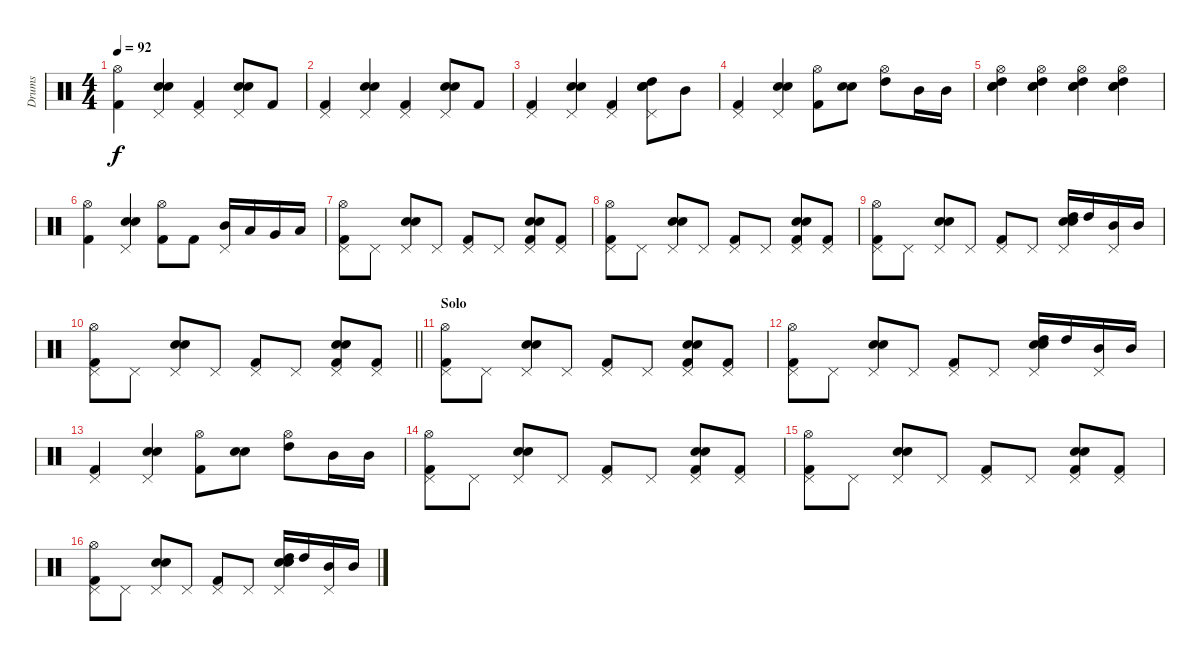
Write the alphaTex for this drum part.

\track ("Drums" "Drums") {instrument percussion}
\staff {score}
\articulation defaults
\ts (4 4)
\tempo 92
\clef neutral
\ks c
("Hi-Hat (open)" "Kick (hit) 2").4{dy f} ("Snare (hit) 2" "Electric Snare (hit)" "Pedal Hi-Hat (hit)").4 ("Kick (hit) 2" "Pedal Hi-Hat (hit)").4 ("Snare (hit) 2" "Electric Snare (hit)" "Pedal Hi-Hat (hit)").8 "Kick (hit) 2".8 |
("Kick (hit) 2" "Pedal Hi-Hat (hit)").4 ("Snare (hit) 2" "Electric Snare (hit)" "Pedal Hi-Hat (hit)").4 ("Kick (hit) 2" "Pedal Hi-Hat (hit)").4 ("Snare (hit) 2" "Electric Snare (hit)" "Pedal Hi-Hat (hit)").8 "Kick (hit) 2".8 |
("Kick (hit) 2" "Pedal Hi-Hat (hit)").4 ("Snare (hit) 2" "Electric Snare (hit)" "Pedal Hi-Hat (hit)").4 ("Kick (hit) 2" "Pedal Hi-Hat (hit)").4 ("Snare (hit) 2" "Electric Snare (hit)" "High Tom (hit)" "Pedal Hi-Hat (hit)").8 "Mid Tom (hit)".8 |
("Kick (hit) 2" "Pedal Hi-Hat (hit)").4 ("Snare (hit) 2" "Electric Snare (hit)" "Pedal Hi-Hat (hit)").4 ("Hi-Hat (open)" "Kick (hit) 2").8 ("Snare (hit) 2" "Electric Snare (hit)").8 ("Hi-Hat (open)" "High Tom (hit)").8 "Mid Tom (hit)".16 "Mid Tom (hit)".16 |
("Hi-Hat (open)" "Snare (hit) 2" "Electric Snare (hit)" "High Tom (hit)").4 ("Hi-Hat (open)" "Snare (hit) 2" "Electric Snare (hit)" "High Tom (hit)").4 ("Hi-Hat (open)" "Snare (hit) 2" "Electric Snare (hit)" "High Tom (hit)").4 ("Hi-Hat (open)" "Snare (hit) 2" "Electric Snare (hit)" "High Tom (hit)").4 |
("Hi-Hat (open)" "Kick (hit) 2").4 ("Snare (hit) 2" "Electric Snare (hit)" "Pedal Hi-Hat (hit)").4 ("Hi-Hat (open)" "Kick (hit) 2").8 "Kick (hit) 2".8 ("Mid Tom (hit)" "Pedal Hi-Hat (hit)").16 "Low Tom (hit)".16 "Very Low Tom (hit)".16 "Low Floor Tom (hit)".16 |
("Hi-Hat (open)" "Kick (hit) 2" "Pedal Hi-Hat (hit)").8 "Pedal Hi-Hat (hit)".8 ("Snare (hit) 2" "Electric Snare (hit)" "Pedal Hi-Hat (hit)").8 "Pedal Hi-Hat (hit)".8 ("Kick (hit) 2" "Pedal Hi-Hat (hit)").8 "Pedal Hi-Hat (hit)".8 ("Snare (hit) 2" "Electric Snare (hit)" "Kick (hit) 2" "Pedal Hi-Hat (hit)").8 ("Kick (hit) 2" "Pedal Hi-Hat (hit)").8 |
("Hi-Hat (open)" "Kick (hit) 2" "Pedal Hi-Hat (hit)").8 "Pedal Hi-Hat (hit)".8 ("Snare (hit) 2" "Electric Snare (hit)" "Pedal Hi-Hat (hit)").8 "Pedal Hi-Hat (hit)".8 ("Kick (hit) 2" "Pedal Hi-Hat (hit)").8 "Pedal Hi-Hat (hit)".8 ("Snare (hit) 2" "Electric Snare (hit)" "Kick (hit) 2" "Pedal Hi-Hat (hit)").8 ("Kick (hit) 2" "Pedal Hi-Hat (hit)").8 |
("Hi-Hat (open)" "Kick (hit) 2" "Pedal Hi-Hat (hit)").8 "Pedal Hi-Hat (hit)".8 ("Snare (hit) 2" "Electric Snare (hit)" "Pedal Hi-Hat (hit)").8 "Pedal Hi-Hat (hit)".8 ("Kick (hit) 2" "Pedal Hi-Hat (hit)").8 "Pedal Hi-Hat (hit)".8 ("Snare (hit) 2" "Electric Snare (hit)" "High Tom (hit)" "Pedal Hi-Hat (hit)").16 "High Tom (hit)".16 ("Mid Tom (hit)" "Pedal Hi-Hat (hit)").16 "Mid Tom (hit)".16 |
\barLineRight lightlight
("Hi-Hat (open)" "Kick (hit) 2" "Pedal Hi-Hat (hit)").8 "Pedal Hi-Hat (hit)".8 ("Snare (hit) 2" "Electric Snare (hit)" "Pedal Hi-Hat (hit)").8 "Pedal Hi-Hat (hit)".8 ("Kick (hit) 2" "Pedal Hi-Hat (hit)").8 "Pedal Hi-Hat (hit)".8 ("Snare (hit) 2" "Electric Snare (hit)" "Kick (hit) 2" "Pedal Hi-Hat (hit)").8 ("Kick (hit) 2" "Pedal Hi-Hat (hit)").8 |
\section ("" "Solo")
("Hi-Hat (open)" "Kick (hit) 2" "Pedal Hi-Hat (hit)").8 "Pedal Hi-Hat (hit)".8 ("Snare (hit) 2" "Electric Snare (hit)" "Pedal Hi-Hat (hit)").8 "Pedal Hi-Hat (hit)".8 ("Kick (hit) 2" "Pedal Hi-Hat (hit)").8 "Pedal Hi-Hat (hit)".8 ("Snare (hit) 2" "Electric Snare (hit)" "Kick (hit) 2" "Pedal Hi-Hat (hit)").8 ("Kick (hit) 2" "Pedal Hi-Hat (hit)").8 |
("Hi-Hat (open)" "Kick (hit) 2" "Pedal Hi-Hat (hit)").8 "Pedal Hi-Hat (hit)".8 ("Snare (hit) 2" "Electric Snare (hit)" "Pedal Hi-Hat (hit)").8 "Pedal Hi-Hat (hit)".8 ("Kick (hit) 2" "Pedal Hi-Hat (hit)").8 "Pedal Hi-Hat (hit)".8 ("Snare (hit) 2" "Electric Snare (hit)" "High Tom (hit)" "Pedal Hi-Hat (hit)").16 "High Tom (hit)".16 ("Mid Tom (hit)" "Pedal Hi-Hat (hit)").16 "Mid Tom (hit)".16 |
("Kick (hit) 2" "Pedal Hi-Hat (hit)").4 ("Snare (hit) 2" "Electric Snare (hit)" "Pedal Hi-Hat (hit)").4 ("Hi-Hat (open)" "Kick (hit) 2").8 ("Snare (hit) 2" "Electric Snare (hit)").8 ("Hi-Hat (open)" "High Tom (hit)").8 "Mid Tom (hit)".16 "Mid Tom (hit)".16 |
("Hi-Hat (open)" "Kick (hit) 2" "Pedal Hi-Hat (hit)").8 "Pedal Hi-Hat (hit)".8 ("Snare (hit) 2" "Electric Snare (hit)" "Pedal Hi-Hat (hit)").8 "Pedal Hi-Hat (hit)".8 ("Kick (hit) 2" "Pedal Hi-Hat (hit)").8 "Pedal Hi-Hat (hit)".8 ("Snare (hit) 2" "Electric Snare (hit)" "Kick (hit) 2" "Pedal Hi-Hat (hit)").8 ("Kick (hit) 2" "Pedal Hi-Hat (hit)").8 |
("Hi-Hat (open)" "Kick (hit) 2" "Pedal Hi-Hat (hit)").8 "Pedal Hi-Hat (hit)".8 ("Snare (hit) 2" "Electric Snare (hit)" "Pedal Hi-Hat (hit)").8 "Pedal Hi-Hat (hit)".8 ("Kick (hit) 2" "Pedal Hi-Hat (hit)").8 "Pedal Hi-Hat (hit)".8 ("Snare (hit) 2" "Electric Snare (hit)" "Kick (hit) 2" "Pedal Hi-Hat (hit)").8 ("Kick (hit) 2" "Pedal Hi-Hat (hit)").8 |
("Hi-Hat (open)" "Kick (hit) 2" "Pedal Hi-Hat (hit)").8 "Pedal Hi-Hat (hit)".8 ("Snare (hit) 2" "Electric Snare (hit)" "Pedal Hi-Hat (hit)").8 "Pedal Hi-Hat (hit)".8 ("Kick (hit) 2" "Pedal Hi-Hat (hit)").8 "Pedal Hi-Hat (hit)".8 ("Snare (hit) 2" "Electric Snare (hit)" "High Tom (hit)" "Pedal Hi-Hat (hit)").16 "High Tom (hit)".16 ("Mid Tom (hit)" "Pedal Hi-Hat (hit)").16 "Mid Tom (hit)".16
